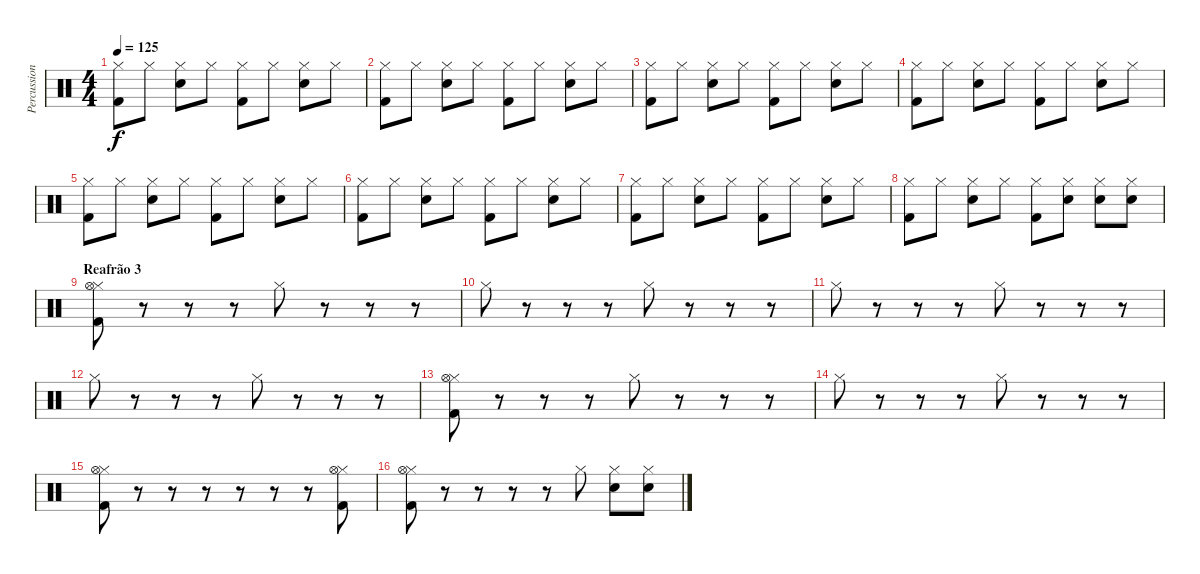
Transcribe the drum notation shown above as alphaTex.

\track ("Percussion" "Percussion") {instrument percussion}
\staff {score}
\articulation defaults
\ts (4 4)
\tempo 125
\clef neutral
\ks c
("Kick (hit) 2" "Hi-Hat (closed)").8{dy f} "Hi-Hat (closed)".8 ("Electric Snare (hit)" "Hi-Hat (closed)").8 "Hi-Hat (closed)".8 ("Kick (hit) 2" "Hi-Hat (closed)").8 "Hi-Hat (closed)".8 ("Electric Snare (hit)" "Hi-Hat (closed)").8 "Hi-Hat (closed)".8 |
("Kick (hit) 2" "Hi-Hat (closed)").8 "Hi-Hat (closed)".8 ("Electric Snare (hit)" "Hi-Hat (closed)").8 "Hi-Hat (closed)".8 ("Kick (hit) 2" "Hi-Hat (closed)").8 "Hi-Hat (closed)".8 ("Electric Snare (hit)" "Hi-Hat (closed)").8 "Hi-Hat (closed)".8 |
("Kick (hit) 2" "Hi-Hat (closed)").8 "Hi-Hat (closed)".8 ("Electric Snare (hit)" "Hi-Hat (closed)").8 "Hi-Hat (closed)".8 ("Kick (hit) 2" "Hi-Hat (closed)").8 "Hi-Hat (closed)".8 ("Electric Snare (hit)" "Hi-Hat (closed)").8 "Hi-Hat (closed)".8 |
("Kick (hit) 2" "Hi-Hat (closed)").8 "Hi-Hat (closed)".8 ("Electric Snare (hit)" "Hi-Hat (closed)").8 "Hi-Hat (closed)".8 ("Kick (hit) 2" "Hi-Hat (closed)").8 "Hi-Hat (closed)".8 ("Electric Snare (hit)" "Hi-Hat (closed)").8 "Hi-Hat (closed)".8 |
("Kick (hit) 2" "Hi-Hat (closed)").8 "Hi-Hat (closed)".8 ("Electric Snare (hit)" "Hi-Hat (closed)").8 "Hi-Hat (closed)".8 ("Kick (hit) 2" "Hi-Hat (closed)").8 "Hi-Hat (closed)".8 ("Electric Snare (hit)" "Hi-Hat (closed)").8 "Hi-Hat (closed)".8 |
("Kick (hit) 2" "Hi-Hat (closed)").8 "Hi-Hat (closed)".8 ("Electric Snare (hit)" "Hi-Hat (closed)").8 "Hi-Hat (closed)".8 ("Kick (hit) 2" "Hi-Hat (closed)").8 "Hi-Hat (closed)".8 ("Electric Snare (hit)" "Hi-Hat (closed)").8 "Hi-Hat (closed)".8 |
("Kick (hit) 2" "Hi-Hat (closed)").8 "Hi-Hat (closed)".8 ("Electric Snare (hit)" "Hi-Hat (closed)").8 "Hi-Hat (closed)".8 ("Kick (hit) 2" "Hi-Hat (closed)").8 "Hi-Hat (closed)".8 ("Electric Snare (hit)" "Hi-Hat (closed)").8 "Hi-Hat (closed)".8 |
("Kick (hit) 2" "Hi-Hat (closed)").8 "Hi-Hat (closed)".8 ("Electric Snare (hit)" "Hi-Hat (closed)").8 "Hi-Hat (closed)".8 ("Kick (hit) 2" "Hi-Hat (closed)").8 ("Electric Snare (hit)" "Hi-Hat (closed)").8 ("Electric Snare (hit)" "Hi-Hat (closed)").8 ("Electric Snare (hit)" "Hi-Hat (closed)").8 |
\section ("" "Reafrão 3")
("Kick (hit) 2" "Hi-Hat (closed)" "Hi-Hat (open)").8 r.8 r.8 r.8 "Hi-Hat (closed)".8 r.8 r.8 r.8 |
"Hi-Hat (closed)".8 r.8 r.8 r.8 "Hi-Hat (closed)".8 r.8 r.8 r.8 |
"Hi-Hat (closed)".8 r.8 r.8 r.8 "Hi-Hat (closed)".8 r.8 r.8 r.8 |
"Hi-Hat (closed)".8 r.8 r.8 r.8 "Hi-Hat (closed)".8 r.8 r.8 r.8 |
("Kick (hit) 2" "Hi-Hat (closed)" "Hi-Hat (open)").8 r.8 r.8 r.8 "Hi-Hat (closed)".8 r.8 r.8 r.8 |
"Hi-Hat (closed)".8 r.8 r.8 r.8 "Hi-Hat (closed)".8 r.8 r.8 r.8 |
("Kick (hit) 2" "Hi-Hat (closed)" "Hi-Hat (open)").8 r.8 r.8 r.8 r.8 r.8 r.8 ("Kick (hit) 2" "Hi-Hat (closed)" "Hi-Hat (open)").8 |
("Kick (hit) 2" "Hi-Hat (closed)" "Hi-Hat (open)").8 r.8 r.8 r.8 r.8 "Hi-Hat (closed)".8 ("Electric Snare (hit)" "Hi-Hat (closed)").8 ("Electric Snare (hit)" "Hi-Hat (closed)").8
